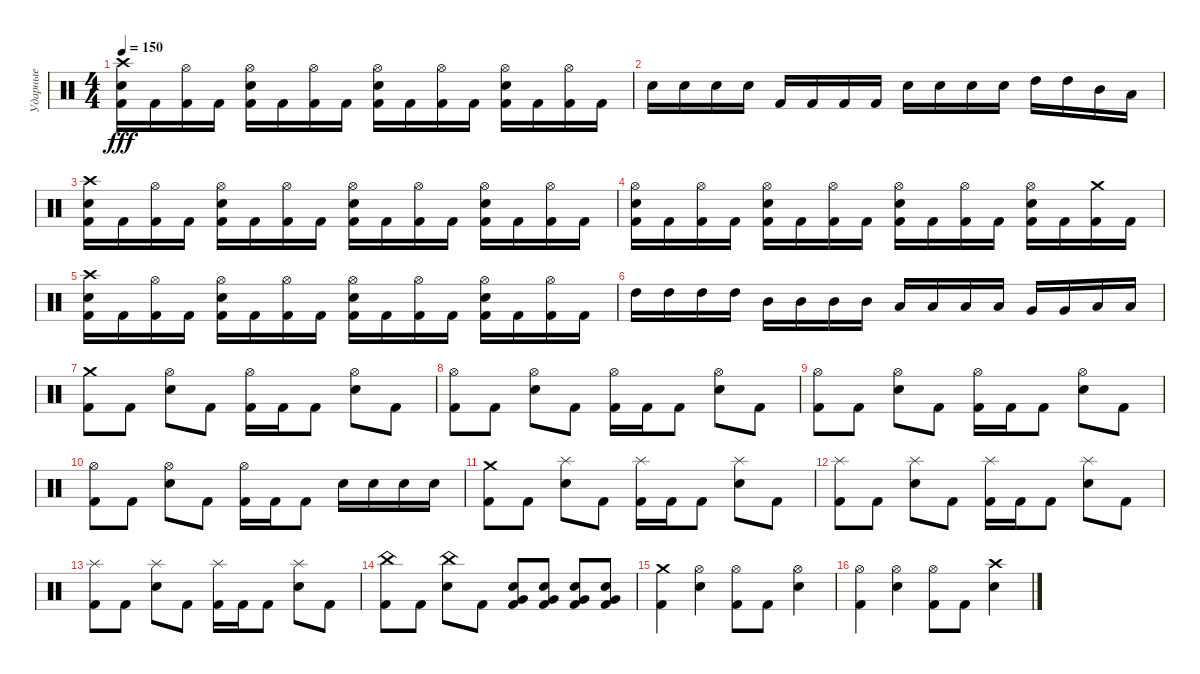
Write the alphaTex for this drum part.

\track ("Ударные" "Ударные") {instrument percussion}
\staff {score}
\articulation defaults
\ts (4 4)
\tempo 150
\clef neutral
\ks c
("Crash high (hit)" "Electric Snare (hit)" "Kick (hit) 2").16{dy fff} "Kick (hit) 2".16 ("Hi-Hat (open)" "Kick (hit) 2").16 "Kick (hit) 2".16 ("Hi-Hat (open)" "Electric Snare (hit)" "Kick (hit) 2").16 "Kick (hit) 2".16 ("Hi-Hat (open)" "Kick (hit) 2").16 "Kick (hit) 2".16 ("Hi-Hat (open)" "Electric Snare (hit)" "Kick (hit) 2").16 "Kick (hit) 2".16 ("Hi-Hat (open)" "Kick (hit) 2").16 "Kick (hit) 2".16 ("Hi-Hat (open)" "Electric Snare (hit)" "Kick (hit) 2").16 "Kick (hit) 2".16 ("Hi-Hat (open)" "Kick (hit) 2").16 "Kick (hit) 2".16 |
"Electric Snare (hit)".16 "Electric Snare (hit)".16 "Electric Snare (hit)".16 "Electric Snare (hit)".16 "Kick (hit) 2".16 "Kick (hit) 2".16 "Kick (hit) 2".16 "Kick (hit) 2".16 "Electric Snare (hit)".16 "Electric Snare (hit)".16 "Electric Snare (hit)".16 "Electric Snare (hit)".16 "High Tom (hit)".16 "High Tom (hit)".16 "Mid Tom (hit)".16 "Low Tom (hit)".16 |
("Crash high (hit)" "Electric Snare (hit)" "Kick (hit) 2").16 "Kick (hit) 2".16 ("Hi-Hat (open)" "Kick (hit) 2").16 "Kick (hit) 2".16 ("Hi-Hat (open)" "Electric Snare (hit)" "Kick (hit) 2").16 "Kick (hit) 2".16 ("Hi-Hat (open)" "Kick (hit) 2").16 "Kick (hit) 2".16 ("Hi-Hat (open)" "Electric Snare (hit)" "Kick (hit) 2").16 "Kick (hit) 2".16 ("Hi-Hat (open)" "Kick (hit) 2").16 "Kick (hit) 2".16 ("Hi-Hat (open)" "Electric Snare (hit)" "Kick (hit) 2").16 "Kick (hit) 2".16 ("Hi-Hat (open)" "Kick (hit) 2").16 "Kick (hit) 2".16 |
("Hi-Hat (open)" "Electric Snare (hit)" "Kick (hit) 2").16 "Kick (hit) 2".16 ("Hi-Hat (open)" "Kick (hit) 2").16 "Kick (hit) 2".16 ("Hi-Hat (open)" "Electric Snare (hit)" "Kick (hit) 2").16 "Kick (hit) 2".16 ("Hi-Hat (open)" "Kick (hit) 2").16 "Kick (hit) 2".16 ("Hi-Hat (open)" "Electric Snare (hit)" "Kick (hit) 2").16 "Kick (hit) 2".16 ("Hi-Hat (open)" "Kick (hit) 2").16 "Kick (hit) 2".16 ("Hi-Hat (open)" "Electric Snare (hit)" "Kick (hit) 2").16 "Kick (hit) 2".16 ("Crash medium (hit)" "Kick (hit) 2").16 "Kick (hit) 2".16 |
("Crash high (hit)" "Electric Snare (hit)" "Kick (hit) 2").16 "Kick (hit) 2".16 ("Hi-Hat (open)" "Kick (hit) 2").16 "Kick (hit) 2".16 ("Hi-Hat (open)" "Electric Snare (hit)" "Kick (hit) 2").16 "Kick (hit) 2".16 ("Hi-Hat (open)" "Kick (hit) 2").16 "Kick (hit) 2".16 ("Hi-Hat (open)" "Electric Snare (hit)" "Kick (hit) 2").16 "Kick (hit) 2".16 ("Hi-Hat (open)" "Kick (hit) 2").16 "Kick (hit) 2".16 ("Hi-Hat (open)" "Electric Snare (hit)" "Kick (hit) 2").16 "Kick (hit) 2".16 ("Hi-Hat (open)" "Kick (hit) 2").16 "Kick (hit) 2".16 |
"High Tom (hit)".16 "High Tom (hit)".16 "High Tom (hit)".16 "High Tom (hit)".16 "Mid Tom (hit)".16 "Mid Tom (hit)".16 "Mid Tom (hit)".16 "Mid Tom (hit)".16 "Low Tom (hit)".16 "Low Tom (hit)".16 "Low Tom (hit)".16 "Low Tom (hit)".16 "Very Low Tom (hit)".16 "Very Low Tom (hit)".16 "Low Floor Tom (hit)".16 "Low Floor Tom (hit)".16 |
("Crash medium (hit)" "Kick (hit) 2").8 "Kick (hit) 2".8 ("Hi-Hat (open)" "Electric Snare (hit)").8 "Kick (hit) 2".8 ("Hi-Hat (open)" "Kick (hit) 2").16 "Kick (hit) 2".16 "Kick (hit) 2".8 ("Hi-Hat (open)" "Electric Snare (hit)").8 "Kick (hit) 2".8 |
("Hi-Hat (open)" "Kick (hit) 2").8 "Kick (hit) 2".8 ("Hi-Hat (open)" "Electric Snare (hit)").8 "Kick (hit) 2".8 ("Hi-Hat (open)" "Kick (hit) 2").16 "Kick (hit) 2".16 "Kick (hit) 2".8 ("Hi-Hat (open)" "Electric Snare (hit)").8 "Kick (hit) 2".8 |
("Hi-Hat (open)" "Kick (hit) 2").8 "Kick (hit) 2".8 ("Hi-Hat (open)" "Electric Snare (hit)").8 "Kick (hit) 2".8 ("Hi-Hat (open)" "Kick (hit) 2").16 "Kick (hit) 2".16 "Kick (hit) 2".8 ("Hi-Hat (open)" "Electric Snare (hit)").8 "Kick (hit) 2".8 |
("Hi-Hat (open)" "Kick (hit) 2").8 "Kick (hit) 2".8 ("Hi-Hat (open)" "Electric Snare (hit)").8 "Kick (hit) 2".8 ("Hi-Hat (open)" "Kick (hit) 2").16 "Kick (hit) 2".16 "Kick (hit) 2".8 "Electric Snare (hit)".16 "Electric Snare (hit)".16 "Electric Snare (hit)".16 "Electric Snare (hit)".16 |
("Crash medium (hit)" "Kick (hit) 2").8 "Kick (hit) 2".8 ("Splash (hit)" "Electric Snare (hit)").8 "Kick (hit) 2".8 ("Splash (hit)" "Kick (hit) 2").16 "Kick (hit) 2".16 "Kick (hit) 2".8 ("Splash (hit)" "Electric Snare (hit)").8 "Kick (hit) 2".8 |
("Splash (hit)" "Kick (hit) 2").8 "Kick (hit) 2".8 ("Splash (hit)" "Electric Snare (hit)").8 "Kick (hit) 2".8 ("Splash (hit)" "Kick (hit) 2").16 "Kick (hit) 2".16 "Kick (hit) 2".8 ("Splash (hit)" "Electric Snare (hit)").8 "Kick (hit) 2".8 |
("Splash (hit)" "Kick (hit) 2").8 "Kick (hit) 2".8 ("Splash (hit)" "Electric Snare (hit)").8 "Kick (hit) 2".8 ("Splash (hit)" "Kick (hit) 2").16 "Kick (hit) 2".16 "Kick (hit) 2".8 ("Splash (hit)" "Electric Snare (hit)").8 "Kick (hit) 2".8 |
("China (hit)" "Kick (hit) 2").8 "Kick (hit) 2".8 ("China (hit)" "Electric Snare (hit)").8 "Kick (hit) 2".8 ("Electric Snare (hit)" "Very Low Tom (hit)" "Kick (hit) 2").8 ("Electric Snare (hit)" "Very Low Tom (hit)" "Kick (hit) 2").8 ("Electric Snare (hit)" "Very Low Tom (hit)" "Kick (hit) 2").8 ("Electric Snare (hit)" "Very Low Tom (hit)" "Kick (hit) 2").8 |
("Crash medium (hit)" "Kick (hit) 2").4 ("Hi-Hat (open)" "Electric Snare (hit)").4 ("Hi-Hat (open)" "Kick (hit) 2").8 "Kick (hit) 2".8 ("Hi-Hat (open)" "Electric Snare (hit)").4 |
("Hi-Hat (open)" "Kick (hit) 2").4 ("Hi-Hat (open)" "Electric Snare (hit)").4 ("Hi-Hat (open)" "Kick (hit) 2").8 "Kick (hit) 2".8 ("Crash high (hit)" "Electric Snare (hit)").4
